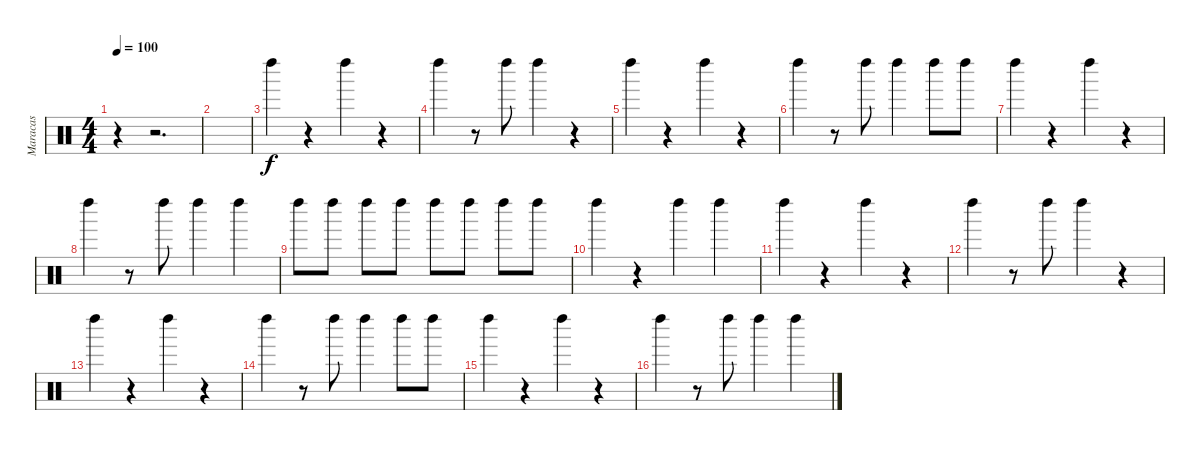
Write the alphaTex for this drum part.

\track ("Maracas" "Maracas") {instrument percussion}
\staff {score}
\articulation defaults
\ts (4 4)
\tempo 100
\clef neutral
\ks c
r.4{dy f} r.2{d} |
|
"Left Maraca (hit)".4 r.4 "Left Maraca (hit)".4 r.4 |
"Left Maraca (hit)".4 r.8 "Left Maraca (hit)".8 "Left Maraca (hit)".4 r.4 |
"Left Maraca (hit)".4 r.4 "Left Maraca (hit)".4 r.4 |
"Left Maraca (hit)".4 r.8 "Left Maraca (hit)".8 "Left Maraca (hit)".4 "Left Maraca (hit)".8 "Left Maraca (hit)".8 |
"Left Maraca (hit)".4 r.4 "Left Maraca (hit)".4 r.4 |
"Left Maraca (hit)".4 r.8 "Left Maraca (hit)".8 "Left Maraca (hit)".4 "Left Maraca (hit)".4 |
"Left Maraca (hit)".8 "Left Maraca (hit)".8 "Left Maraca (hit)".8 "Left Maraca (hit)".8 "Left Maraca (hit)".8 "Left Maraca (hit)".8 "Left Maraca (hit)".8 "Left Maraca (hit)".8 |
"Left Maraca (hit)".4 r.4 "Left Maraca (hit)".4 "Left Maraca (hit)".4 |
"Left Maraca (hit)".4 r.4 "Left Maraca (hit)".4 r.4 |
"Left Maraca (hit)".4 r.8 "Left Maraca (hit)".8 "Left Maraca (hit)".4 r.4 |
"Left Maraca (hit)".4 r.4 "Left Maraca (hit)".4 r.4 |
"Left Maraca (hit)".4 r.8 "Left Maraca (hit)".8 "Left Maraca (hit)".4 "Left Maraca (hit)".8 "Left Maraca (hit)".8 |
"Left Maraca (hit)".4 r.4 "Left Maraca (hit)".4 r.4 |
"Left Maraca (hit)".4 r.8 "Left Maraca (hit)".8 "Left Maraca (hit)".4 "Left Maraca (hit)".4
